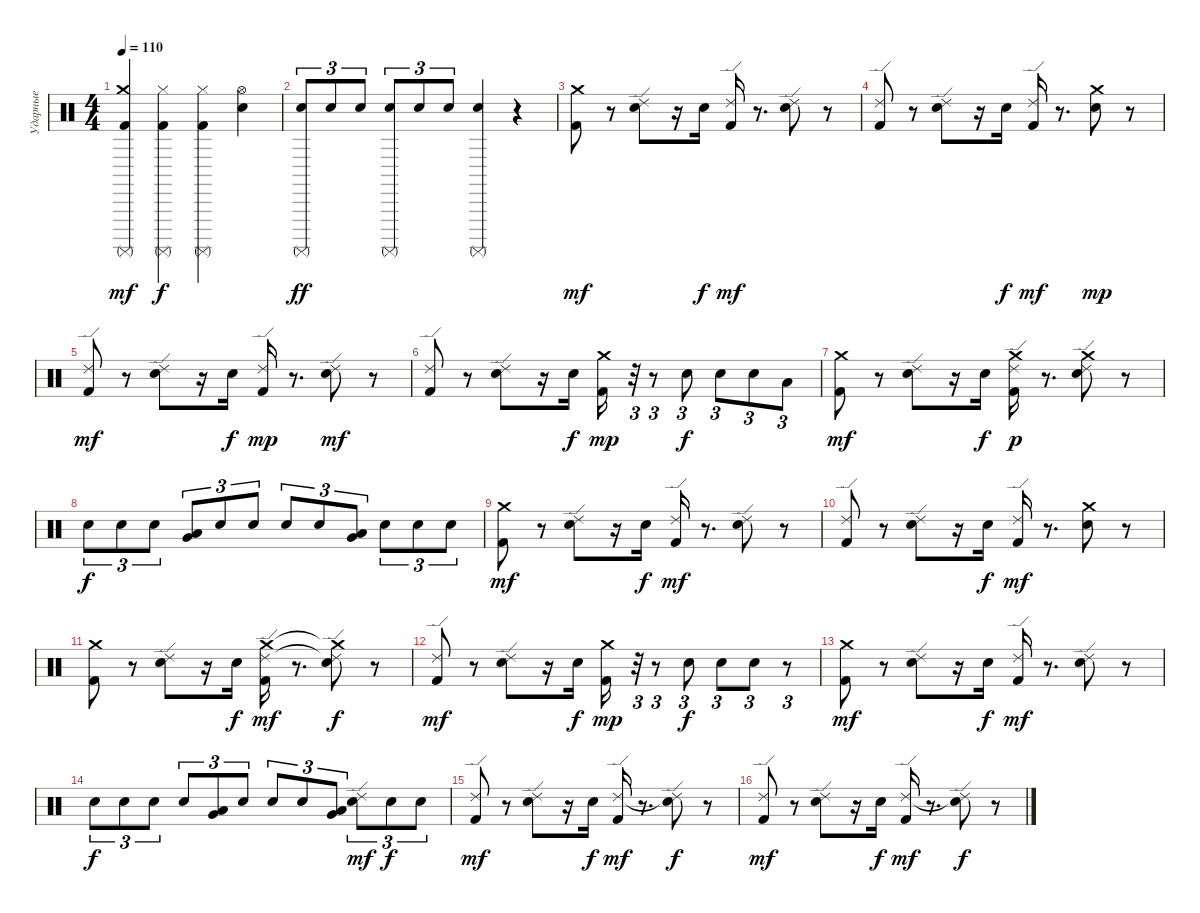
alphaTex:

\track ("Ударные" "Ударные") {instrument percussion}
\staff {score}
\articulation defaults
\ts (4 4)
\tempo 110
\clef neutral
\ks c
("Crash medium (hit)" "Kick (hit) 2" "Surdo (mute)").4{dy mf} ("Hi-Hat (closed)" "Kick (hit) 2" "Surdo (mute)").4{dy f} ("Hi-Hat (closed)" "Kick (hit) 2" "Surdo (mute)").4 ("Hi-Hat (open)" "Electric Snare (hit)").4 |
("Electric Snare (hit)" "Surdo (mute)").8{tu (3 2) dy ff} "Electric Snare (hit)".8{tu (3 2)} "Electric Snare (hit)".8{tu (3 2)} ("Electric Snare (hit)" "Surdo (mute)").8{tu (3 2)} "Electric Snare (hit)".8{tu (3 2)} "Electric Snare (hit)".8{tu (3 2)} ("Electric Snare (hit)" "Surdo (mute)").4 r.4 |
("Kick (hit) 2" "Crash medium (hit)").8{dy mf} r.8 ("Electric Snare (hit)" "Ride (edge) 2").8 r.16 "Electric Snare (hit)".16{dy f} ("Kick (hit) 2" "Ride (edge) 2").16{dy mf} r.8{d} ("Electric Snare (hit)" "Ride (edge) 2").8 r.8 |
("Kick (hit) 2" "Ride (edge) 2").8 r.8 ("Electric Snare (hit)" "Ride (edge) 2").8 r.16 "Electric Snare (hit)".16{dy f} ("Kick (hit) 2" "Ride (edge) 2").16{dy mf} r.8{d} ("Electric Snare (hit)" "Crash medium (hit)").8{dy mp} r.8 |
("Kick (hit) 2" "Ride (edge) 2").8{dy mf} r.8 ("Electric Snare (hit)" "Ride (edge) 2").8 r.16 "Electric Snare (hit)".16{dy f} ("Kick (hit) 2" "Ride (edge) 2").16{dy mp} r.8{d} ("Electric Snare (hit)" "Ride (edge) 2").8{dy mf} r.8 |
("Kick (hit) 2" "Ride (edge) 2").8 r.8 ("Electric Snare (hit)" "Ride (edge) 2").8 r.16 "Electric Snare (hit)".16{dy f} ("Kick (hit) 2" "Crash medium (hit)").16{dy mp} r.32{tu (3 2)} r.8{tu (3 2)} "Electric Snare (hit)".8{tu (3 2) dy f} "Electric Snare (hit)".8{tu (3 2)} "Electric Snare (hit)".8{tu (3 2)} "Low Floor Tom (hit)".8{tu (3 2)} |
("Kick (hit) 2" "Crash medium (hit)").8{dy mf} r.8 ("Electric Snare (hit)" "Ride (edge) 2").8 r.16 "Electric Snare (hit)".16{dy f} ("Kick (hit) 2" "Ride (edge) 2" "Crash medium (hit)").16{dy p} r.8{d} ("Electric Snare (hit)" "Ride (edge) 2" "Crash medium (hit)").8 r.8 |
"Electric Snare (hit)".8{tu (3 2) dy f} "Electric Snare (hit)".8{tu (3 2)} "Electric Snare (hit)".8{tu (3 2)} ("Very Low Tom (hit)" "Low Floor Tom (hit)").8{tu (3 2)} "Electric Snare (hit)".8{tu (3 2)} "Electric Snare (hit)".8{tu (3 2)} "Electric Snare (hit)".8{tu (3 2)} "Electric Snare (hit)".8{tu (3 2)} ("Very Low Tom (hit)" "Low Floor Tom (hit)").8{tu (3 2)} "Electric Snare (hit)".8{tu (3 2)} "Electric Snare (hit)".8{tu (3 2)} "Electric Snare (hit)".8{tu (3 2)} |
("Kick (hit) 2" "Crash medium (hit)").8{dy mf} r.8 ("Electric Snare (hit)" "Ride (edge) 2").8 r.16 "Electric Snare (hit)".16{dy f} ("Kick (hit) 2" "Ride (edge) 2").16{dy mf} r.8{d} ("Electric Snare (hit)" "Ride (edge) 2").8 r.8 |
("Kick (hit) 2" "Ride (edge) 2").8 r.8 ("Electric Snare (hit)" "Ride (edge) 2").8 r.16 "Electric Snare (hit)".16{dy f} ("Kick (hit) 2" "Ride (edge) 2").16{dy mf} r.8{d} ("Electric Snare (hit)" "Crash medium (hit)").8 r.8 |
("Kick (hit) 2" "Crash medium (hit)").8 r.8 ("Electric Snare (hit)" "Ride (edge) 2").8 r.16 "Electric Snare (hit)".16{dy f} ("Kick (hit) 2" "Crash medium (hit)" "Ride (edge) 2").16{dy mf} r.8{d} ("Electric Snare (hit)" "Crash medium (hit)"{t} "Ride (edge) 2"{t}).8{dy f} r.8 |
("Kick (hit) 2" "Ride (edge) 2").8{dy mf} r.8 ("Electric Snare (hit)" "Ride (edge) 2").8 r.16 "Electric Snare (hit)".16{dy f} ("Kick (hit) 2" "Crash medium (hit)").16{dy mp} r.32{tu (3 2)} r.8{tu (3 2)} "Electric Snare (hit)".8{tu (3 2) dy f} "Electric Snare (hit)".8{tu (3 2)} "Electric Snare (hit)".8{tu (3 2)} r.8{tu (3 2)} |
("Kick (hit) 2" "Crash medium (hit)").8{dy mf} r.8 ("Electric Snare (hit)" "Ride (edge) 2").8 r.16 "Electric Snare (hit)".16{dy f} ("Kick (hit) 2" "Ride (edge) 2").16{dy mf} r.8{d} ("Electric Snare (hit)" "Ride (edge) 2").8 r.8 |
"Electric Snare (hit)".8{tu (3 2) dy f} "Electric Snare (hit)".8{tu (3 2)} "Electric Snare (hit)".8{tu (3 2)} "Electric Snare (hit)".8{tu (3 2)} ("Low Floor Tom (hit)" "Very Low Tom (hit)").8{tu (3 2)} "Electric Snare (hit)".8{tu (3 2)} "Electric Snare (hit)".8{tu (3 2)} "Electric Snare (hit)".8{tu (3 2)} ("Very Low Tom (hit)" "Low Floor Tom (hit)").8{tu (3 2)} ("Electric Snare (hit)" "Ride (edge) 2").8{tu (3 2) dy mf} "Electric Snare (hit)".8{tu (3 2) dy f} "Electric Snare (hit)".8{tu (3 2)} |
("Kick (hit) 2" "Ride (edge) 2").8{dy mf} r.8 ("Electric Snare (hit)" "Ride (edge) 2").8 r.16 "Electric Snare (hit)".16{dy f} ("Kick (hit) 2" "Ride (edge) 2").16{dy mf} r.8{d} ("Electric Snare (hit)" "Ride (edge) 2"{t}).8{dy f} r.8 |
("Kick (hit) 2" "Ride (edge) 2").8{dy mf} r.8 ("Electric Snare (hit)" "Ride (edge) 2").8 r.16 "Electric Snare (hit)".16{dy f} ("Kick (hit) 2" "Ride (edge) 2").16{dy mf} r.8{d} ("Electric Snare (hit)" "Ride (edge) 2"{t}).8{dy f} r.8
